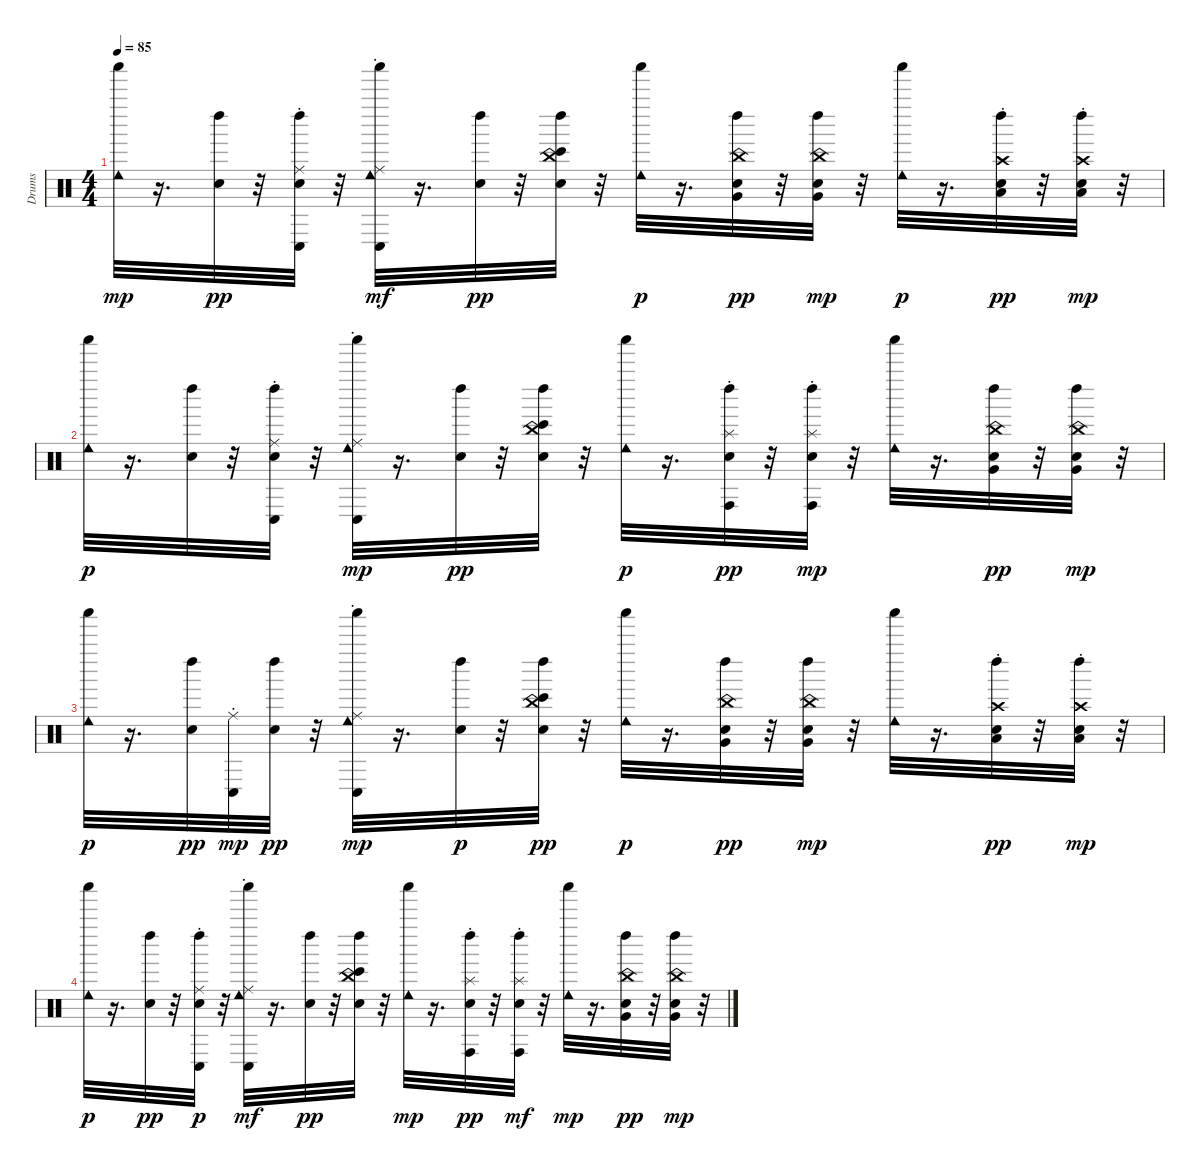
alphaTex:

\track ("Drums" "Drums") {instrument percussion}
\staff {score}
\articulation defaults
\ts (4 4)
\tempo 85
\clef neutral
\ks c
("Cowbell low (hit)" "Shaker (hit)").32{dy mp} r.16{d} ("Snare (hit)" "Left Maraca (hit)").32{dy pp} r.32 ("Conga low (hit)" "Ride (choke)" "Left Maraca (hit)" "Snare (hit)").32 r.32 ("Shaker (hit)" "Cowbell low (hit)" "Ride (choke)" "Conga low (hit)").32{dy mf} r.16{d} ("Left Maraca (hit)" "Snare (hit)").32{dy pp} r.32 ("Bongo High (hit)" "China (choke)" "Left Maraca (hit)" "Snare (hit)").32 r.32 ("Shaker (hit)" "Cowbell low (hit)").32{dy p} r.16{d} ("China (choke)" "Left Maraca (hit)" "Very Low Tom (hit)" "Snare (hit)").32{dy pp} r.32 ("Left Maraca (hit)" "Snare (hit)" "China (choke)" "Very Low Tom (hit)").32{dy mp} r.32 ("Shaker (hit)" "Cowbell low (hit)").32{dy p} r.16{d} ("Low Floor Tom (hit)" "Crash high (choke)" "Left Maraca (hit)" "Snare (hit)").32{dy pp} r.32 ("Left Maraca (hit)" "Snare (hit)" "Crash high (choke)" "Low Floor Tom (hit)").32{dy mp} r.32 |
("Shaker (hit)" "Cowbell low (hit)").32{dy p} r.16{d} ("Snare (hit)" "Left Maraca (hit)").32 r.32 ("Ride (choke)" "Conga low (hit)" "Snare (hit)" "Left Maraca (hit)").32 r.32 ("Shaker (hit)" "Conga low (hit)" "Cowbell low (hit)" "Ride (choke)").32{dy mp} r.16{d} ("Snare (hit)" "Left Maraca (hit)").32{dy pp} r.32 ("Bongo High (hit)" "China (choke)" "Left Maraca (hit)" "Snare (hit)").32 r.32 ("Shaker (hit)" "Cowbell low (hit)").32{dy p} r.16{d} ("Conga high (hit)" "Splash (choke)" "Left Maraca (hit)" "Snare (hit)").32{dy pp} r.32 ("Left Maraca (hit)" "Snare (hit)" "Conga high (hit)" "Splash (choke)").32{dy mp} r.32 ("Cowbell low (hit)" "Shaker (hit)").32 r.16{d} ("Very Low Tom (hit)" "China (choke)" "Snare (hit)" "Left Maraca (hit)").32{dy pp} r.32 ("Left Maraca (hit)" "Snare (hit)" "China (choke)" "Very Low Tom (hit)").32{dy mp} r.32 |
("Shaker (hit)" "Cowbell low (hit)").32{dy p} r.16{d} ("Left Maraca (hit)" "Snare (hit)").32{dy pp} ("Conga low (hit)" "Ride (choke)").32{dy mp} ("Left Maraca (hit)" "Snare (hit)").32{dy pp} r.32 ("Shaker (hit)" "Cowbell low (hit)" "Conga low (hit)" "Ride (choke)").32{dy mp} r.16{d} ("Snare (hit)" "Left Maraca (hit)").32{dy p} r.32 ("Bongo High (hit)" "China (choke)" "Left Maraca (hit)" "Snare (hit)").32{dy pp} r.32 ("Shaker (hit)" "Cowbell low (hit)").32{dy p} r.16{d} ("China (choke)" "Very Low Tom (hit)" "Left Maraca (hit)" "Snare (hit)").32{dy pp} r.32 ("Left Maraca (hit)" "Snare (hit)" "Very Low Tom (hit)" "China (choke)").32{dy mp} r.32 ("Cowbell low (hit)" "Shaker (hit)").32 r.16{d} ("Crash high (choke)" "Low Floor Tom (hit)" "Left Maraca (hit)" "Snare (hit)").32{dy pp} r.32 ("Left Maraca (hit)" "Snare (hit)" "Crash high (choke)" "Low Floor Tom (hit)").32{dy mp} r.32 |
("Shaker (hit)" "Cowbell low (hit)").32{dy p} r.16{d} ("Left Maraca (hit)" "Snare (hit)").32{dy pp} r.32 ("Ride (choke)" "Conga low (hit)" "Snare (hit)" "Left Maraca (hit)").32{dy p} r.32 ("Shaker (hit)" "Cowbell low (hit)" "Ride (choke)" "Conga low (hit)").32{dy mf} r.16{d} ("Left Maraca (hit)" "Snare (hit)").32{dy pp} r.32 ("Bongo High (hit)" "Left Maraca (hit)" "China (choke)" "Snare (hit)").32 r.32 ("Cowbell low (hit)" "Shaker (hit)").32{dy mp} r.16{d} ("Conga high (hit)" "Left Maraca (hit)" "Splash (choke)" "Snare (hit)").32{dy pp} r.32 ("Left Maraca (hit)" "Snare (hit)" "Splash (choke)" "Conga high (hit)").32{dy mf} r.32 ("Cowbell low (hit)" "Shaker (hit)").32{dy mp} r.16{d} ("China (choke)" "Very Low Tom (hit)" "Left Maraca (hit)" "Snare (hit)").32{dy pp} r.32 ("Snare (hit)" "Left Maraca (hit)" "China (choke)" "Very Low Tom (hit)").32{dy mp} r.32
